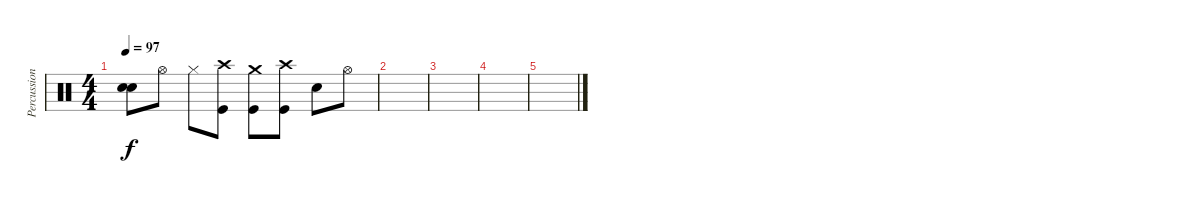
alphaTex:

\track ("Percussions (Etn)" "Percussion") {instrument percussion}
\staff {score}
\articulation defaults
\ts (4 4)
\tempo 97
\clef neutral
\ks c
("Electric Snare (hit)" "Electric Snare (hit)").8{bd 240 dy f} "Hi-Hat (open)".8 "Hi-Hat (closed)".8 ("Crash high (hit)" "Kick (hit)").8 ("Crash medium (hit)" "Kick (hit)").8 ("Crash high (hit)" "Kick (hit)").8 "Electric Snare (hit)".8 "Hi-Hat (open)".8 |
|
|
|
\section ("" "")
